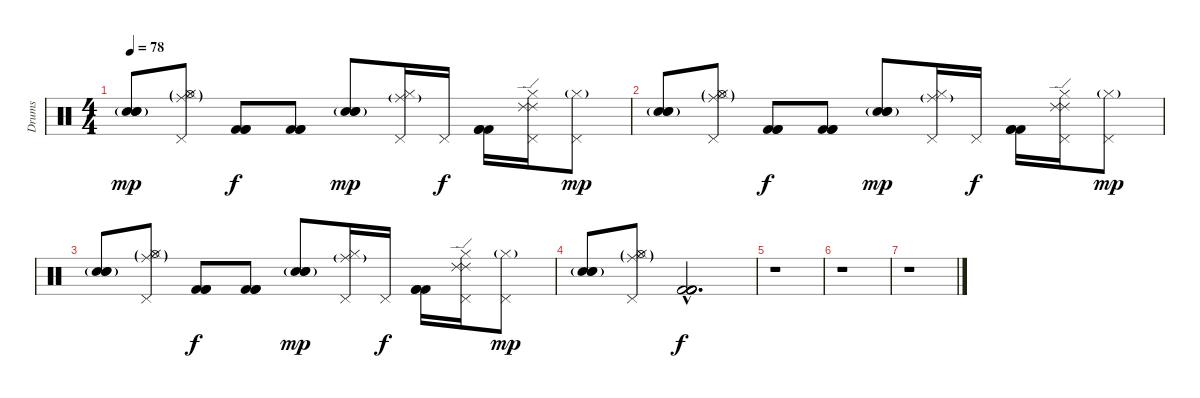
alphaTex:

\track ("Drums" "Drums") {instrument percussion}
\staff {score}
\articulation defaults
\ts (4 4)
\tempo 78
\clef neutral
\ks c
("Electric Snare (hit)" "Electric Snare (hit)" "Snare (hit) 2"{g}).8{dy mp} ("Pedal Hi-Hat (hit)" "Hi-Hat (closed)" "Hi-Hat (open)"{g} "Ride (middle)"{g}).8 ("Kick (hit) 2" "Kick (hit) 2" "Kick (hit) 2").8{dy f} ("Kick (hit) 2" "Kick (hit) 2" "Kick (hit) 2").8 ("Electric Snare (hit)" "Electric Snare (hit)" "Snare (hit) 2"{g}).8{dy mp} ("Pedal Hi-Hat (hit)" "Hi-Hat (closed)" "Ride (middle)"{g}).16 "Pedal Hi-Hat (hit)".16{dy f} ("Kick (hit) 2" "Kick (hit) 2" "Kick (hit) 2").16 ("Pedal Hi-Hat (hit)" "Hi-Hat (closed)" "Ride (edge) 2" "Ride (edge) 2").16 ("Pedal Hi-Hat (hit)" "Hi-Hat (closed)"{g}).8{dy mp} |
("Electric Snare (hit)" "Electric Snare (hit)" "Snare (hit) 2"{g}).8 ("Pedal Hi-Hat (hit)" "Hi-Hat (closed)" "Hi-Hat (open)"{g} "Ride (middle)"{g}).8 ("Kick (hit) 2" "Kick (hit) 2" "Kick (hit) 2").8{dy f} ("Kick (hit) 2" "Kick (hit) 2" "Kick (hit) 2").8 ("Electric Snare (hit)" "Electric Snare (hit)" "Snare (hit) 2"{g}).8{dy mp} ("Pedal Hi-Hat (hit)" "Hi-Hat (closed)" "Ride (middle)"{g}).16 "Pedal Hi-Hat (hit)".16{dy f} ("Kick (hit) 2" "Kick (hit) 2" "Kick (hit) 2").16 ("Pedal Hi-Hat (hit)" "Hi-Hat (closed)" "Ride (edge) 2" "Ride (edge) 2").16 ("Pedal Hi-Hat (hit)" "Hi-Hat (closed)"{g}).8{dy mp} |
("Electric Snare (hit)" "Electric Snare (hit)" "Snare (hit) 2"{g}).8 ("Pedal Hi-Hat (hit)" "Hi-Hat (closed)" "Hi-Hat (open)"{g} "Ride (middle)"{g}).8 ("Kick (hit) 2" "Kick (hit) 2" "Kick (hit) 2").8{dy f} ("Kick (hit) 2" "Kick (hit) 2" "Kick (hit) 2").8 ("Electric Snare (hit)" "Electric Snare (hit)" "Snare (hit) 2"{g}).8{dy mp} ("Pedal Hi-Hat (hit)" "Hi-Hat (closed)" "Ride (middle)"{g}).16 "Pedal Hi-Hat (hit)".16{dy f} ("Kick (hit) 2" "Kick (hit) 2" "Kick (hit) 2").16 ("Pedal Hi-Hat (hit)" "Hi-Hat (closed)" "Ride (edge) 2" "Ride (edge) 2").16 ("Pedal Hi-Hat (hit)" "Hi-Hat (closed)"{g}).8{dy mp} |
("Electric Snare (hit)" "Electric Snare (hit)" "Snare (hit) 2"{g}).8 ("Pedal Hi-Hat (hit)" "Hi-Hat (closed)" "Hi-Hat (open)"{g} "Ride (middle)"{g}).8 ("Kick (hit) 2"{hac} "Kick (hit) 2"{hac} "Kick (hit) 2"{hac} "Kick (hit) 2"{hac}).2{d dy f} |
r.1 |
r.1 |
r.1
